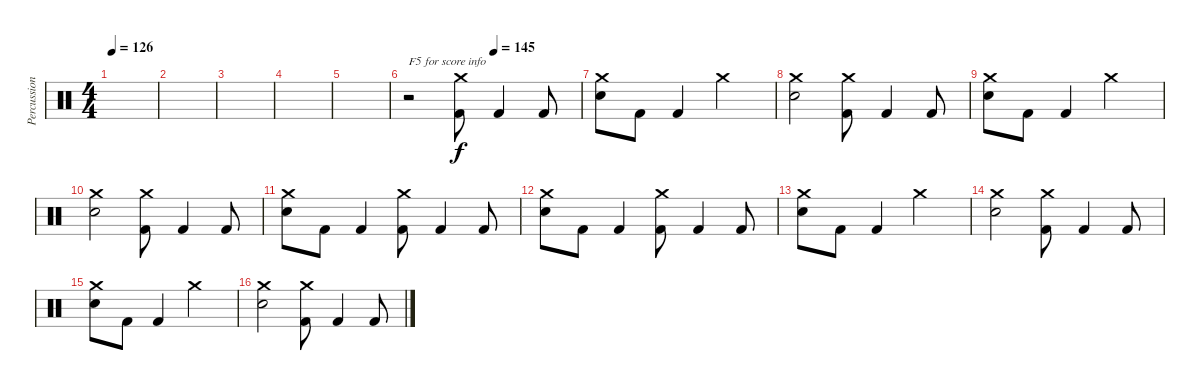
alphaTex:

\track ("Percussion" "Percussion") {instrument percussion}
\staff {score}
\articulation defaults
\ts (4 4)
\tempo 126
\clef neutral
\ks c
|
|
|
|
|
\tempo (145 0.5)
r.2{txt "F5 for score info"} ("Crash medium (hit)" "Kick (hit) 2").8 "Kick (hit) 2".4 "Kick (hit) 2".8 |
("Crash medium (hit)" "Electric Snare (hit)").8 "Kick (hit) 2".8 "Kick (hit) 2".4 "Crash medium (hit)".2 |
("Crash medium (hit)" "Electric Snare (hit)").2 ("Crash medium (hit)" "Kick (hit) 2").8 "Kick (hit) 2".4 "Kick (hit) 2".8 |
("Crash medium (hit)" "Electric Snare (hit)").8 "Kick (hit) 2".8 "Kick (hit) 2".4 "Crash medium (hit)".2 |
("Crash medium (hit)" "Electric Snare (hit)").2 ("Crash medium (hit)" "Kick (hit) 2").8 "Kick (hit) 2".4 "Kick (hit) 2".8 |
("Crash medium (hit)" "Electric Snare (hit)").8 "Kick (hit) 2".8 "Kick (hit) 2".4 ("Crash medium (hit)" "Kick (hit) 2").8 "Kick (hit) 2".4 "Kick (hit) 2".8 |
("Crash medium (hit)" "Electric Snare (hit)").8 "Kick (hit) 2".8 "Kick (hit) 2".4 ("Crash medium (hit)" "Kick (hit) 2").8 "Kick (hit) 2".4 "Kick (hit) 2".8 |
("Crash medium (hit)" "Electric Snare (hit)").8 "Kick (hit) 2".8 "Kick (hit) 2".4 "Crash medium (hit)".2 |
("Crash medium (hit)" "Electric Snare (hit)").2 ("Crash medium (hit)" "Kick (hit) 2").8 "Kick (hit) 2".4 "Kick (hit) 2".8 |
("Crash medium (hit)" "Electric Snare (hit)").8 "Kick (hit) 2".8 "Kick (hit) 2".4 "Crash medium (hit)".2 |
("Crash medium (hit)" "Electric Snare (hit)").2 ("Crash medium (hit)" "Kick (hit) 2").8 "Kick (hit) 2".4 "Kick (hit) 2".8
